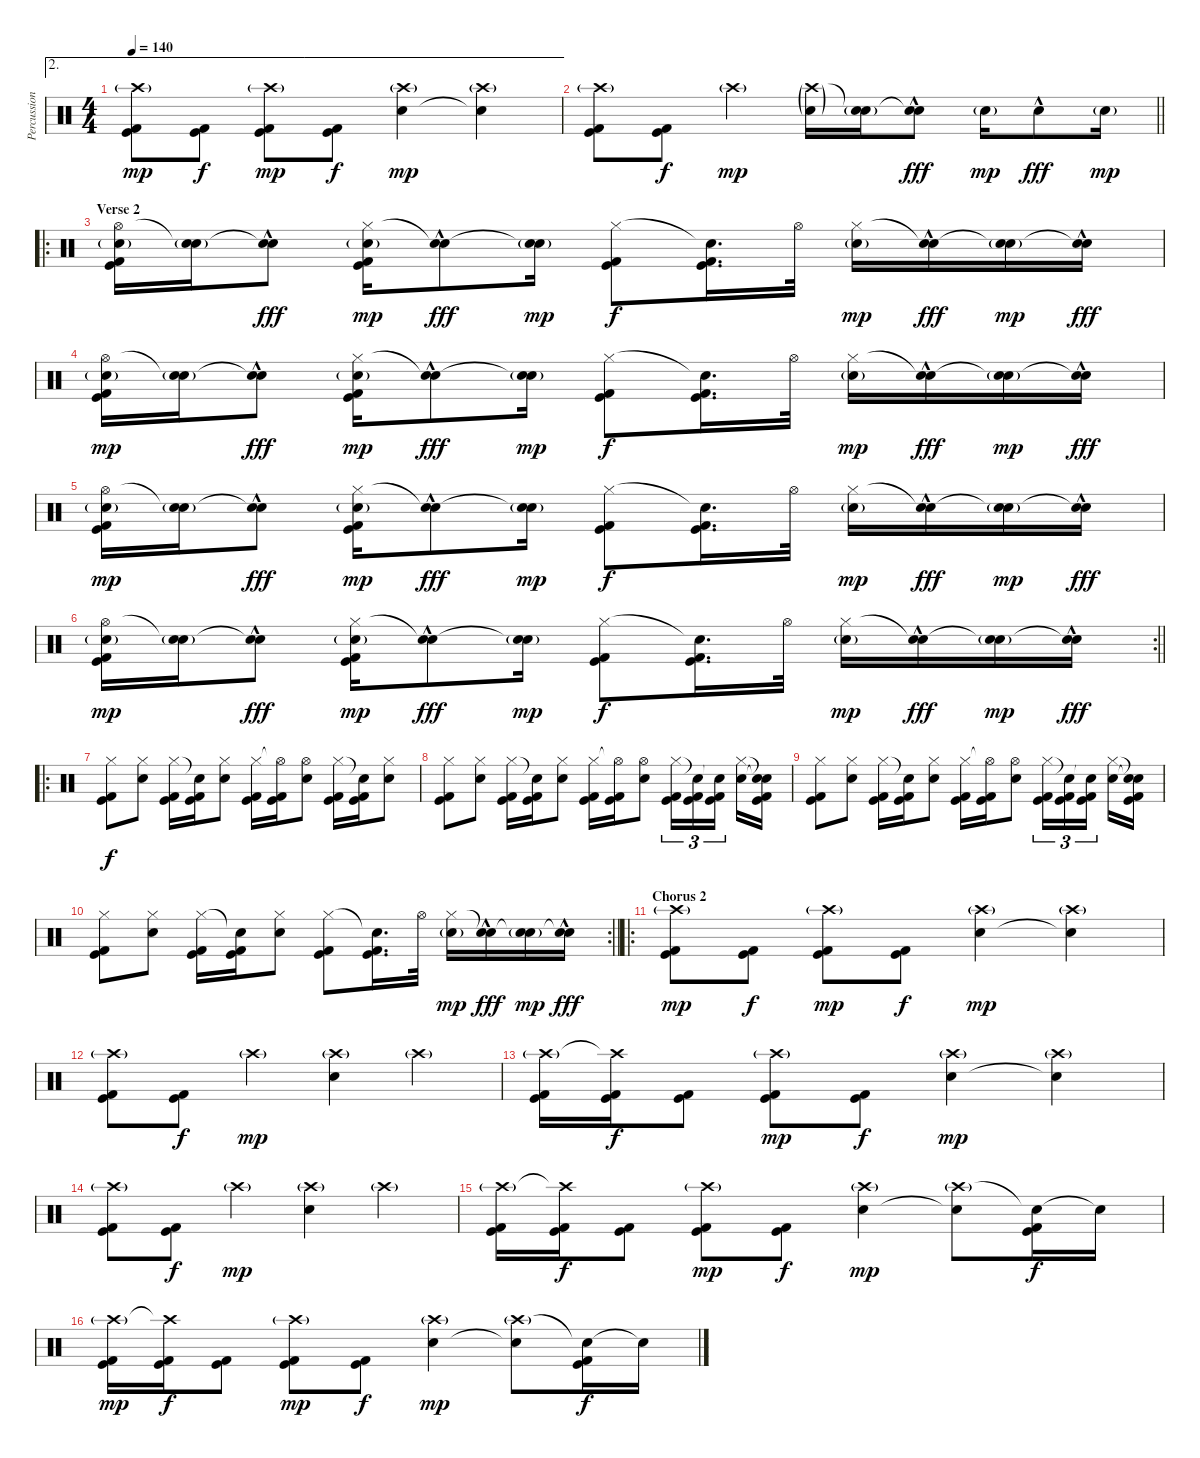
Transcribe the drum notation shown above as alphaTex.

\track ("Percussion" "Percussion") {instrument percussion}
\staff {score}
\articulation defaults
\ae 2
\ts (4 4)
\tempo 140
\clef neutral
\ks c
("Crash high (hit)"{g} "Kick (hit) 2" "Kick (hit)").8{dy mp} ("Kick (hit) 2" "Kick (hit)").8{dy f} ("Crash high (hit)"{g} "Kick (hit) 2" "Kick (hit)").8{dy mp} ("Kick (hit) 2" "Kick (hit)").8{dy f} ("Crash high (hit)"{g} "Electric Snare (hit)").4{dy mp} ("Crash high (hit)"{g} "Snare (hit)"{t}).4 |
\barLineRight lightlight
("Crash high (hit)"{g} "Kick (hit) 2" "Kick (hit)").8 ("Kick (hit) 2" "Kick (hit)").8{dy f} "Crash high (hit)"{g}.4{dy mp} ("Crash high (hit)"{g} "Electric Snare (hit)"{g}).16 ("Snare (hit)"{t} "Electric Snare (hit)"{g}).16 ("Snare (hit)"{t} "Electric Snare (hit)"{hac}).8{dy fff} "Electric Snare (hit)"{g}.16{dy mp} "Electric Snare (hit)"{hac}.8{dy fff} "Electric Snare (hit)"{g}.16{dy mp} |
\ro
\section ("" "Verse 2")
("Hi-Hat (open)" "Electric Snare (hit)"{g} "Kick (hit)" "Kick (hit) 2").16 ("Snare (hit)"{t} "Electric Snare (hit)"{g}).16 ("Snare (hit)"{t} "Electric Snare (hit)"{hac}).8{dy fff} ("Hi-Hat (closed)" "Electric Snare (hit)"{g} "Kick (hit)" "Kick (hit) 2").16{dy mp} ("Snare (hit)"{t} "Electric Snare (hit)"{hac}).8{dy fff} ("Snare (hit)"{t} "Electric Snare (hit)"{g}).16{dy mp} ("Hi-Hat (closed)" "Kick (hit)" "Kick (hit) 2").8{dy f} ("Snare (hit)"{t} "Kick (hit) 2" "Kick (hit)").16{d} "Hi-Hat (open)".32 ("Hi-Hat (closed)" "Electric Snare (hit)"{g}).16{dy mp} ("Snare (hit)"{t} "Electric Snare (hit)"{hac}).16{dy fff} ("Snare (hit)"{t} "Electric Snare (hit)"{g}).16{dy mp} ("Snare (hit)"{t} "Electric Snare (hit)"{hac}).16{dy fff} |
("Hi-Hat (open)" "Electric Snare (hit)"{g} "Kick (hit)" "Kick (hit) 2").16{dy mp} ("Snare (hit)"{t} "Electric Snare (hit)"{g}).16 ("Snare (hit)"{t} "Electric Snare (hit)"{hac}).8{dy fff} ("Hi-Hat (closed)" "Electric Snare (hit)"{g} "Kick (hit)" "Kick (hit) 2").16{dy mp} ("Snare (hit)"{t} "Electric Snare (hit)"{hac}).8{dy fff} ("Snare (hit)"{t} "Electric Snare (hit)"{g}).16{dy mp} ("Hi-Hat (closed)" "Kick (hit)" "Kick (hit) 2").8{dy f} ("Snare (hit)"{t} "Kick (hit) 2" "Kick (hit)").16{d} "Hi-Hat (open)".32 ("Hi-Hat (closed)" "Electric Snare (hit)"{g}).16{dy mp} ("Snare (hit)"{t} "Electric Snare (hit)"{hac}).16{dy fff} ("Snare (hit)"{t} "Electric Snare (hit)"{g}).16{dy mp} ("Snare (hit)"{t} "Electric Snare (hit)"{hac}).16{dy fff} |
("Hi-Hat (open)" "Electric Snare (hit)"{g} "Kick (hit)" "Kick (hit) 2").16{dy mp} ("Snare (hit)"{t} "Electric Snare (hit)"{g}).16 ("Snare (hit)"{t} "Electric Snare (hit)"{hac}).8{dy fff} ("Hi-Hat (closed)" "Electric Snare (hit)"{g} "Kick (hit)" "Kick (hit) 2").16{dy mp} ("Snare (hit)"{t} "Electric Snare (hit)"{hac}).8{dy fff} ("Snare (hit)"{t} "Electric Snare (hit)"{g}).16{dy mp} ("Hi-Hat (closed)" "Kick (hit)" "Kick (hit) 2").8{dy f} ("Snare (hit)"{t} "Kick (hit) 2" "Kick (hit)").16{d} "Hi-Hat (open)".32 ("Hi-Hat (closed)" "Electric Snare (hit)"{g}).16{dy mp} ("Snare (hit)"{t} "Electric Snare (hit)"{hac}).16{dy fff} ("Snare (hit)"{t} "Electric Snare (hit)"{g}).16{dy mp} ("Snare (hit)"{t} "Electric Snare (hit)"{hac}).16{dy fff} |
\rc 2
\barLineRight lightlight
("Hi-Hat (open)" "Electric Snare (hit)"{g} "Kick (hit)" "Kick (hit) 2").16{dy mp} ("Snare (hit)"{t} "Electric Snare (hit)"{g}).16 ("Snare (hit)"{t} "Electric Snare (hit)"{hac}).8{dy fff} ("Hi-Hat (closed)" "Electric Snare (hit)"{g} "Kick (hit)" "Kick (hit) 2").16{dy mp} ("Snare (hit)"{t} "Electric Snare (hit)"{hac}).8{dy fff} ("Snare (hit)"{t} "Electric Snare (hit)"{g}).16{dy mp} ("Hi-Hat (closed)" "Kick (hit)" "Kick (hit) 2").8{dy f} ("Snare (hit)"{t} "Kick (hit) 2" "Kick (hit)").16{d} "Hi-Hat (open)".32 ("Hi-Hat (closed)" "Electric Snare (hit)"{g}).16{dy mp} ("Snare (hit)"{t} "Electric Snare (hit)"{hac}).16{dy fff} ("Snare (hit)"{t} "Electric Snare (hit)"{g}).16{dy mp} ("Snare (hit)"{t} "Electric Snare (hit)"{hac}).16{dy fff} |
\ro
("Hi-Hat (closed)" "Kick (hit) 2" "Kick (hit)").8{dy f} ("Hi-Hat (closed)" "Electric Snare (hit)").8 ("Hi-Hat (closed)" "Kick (hit) 2" "Kick (hit)").16 ("Snare (hit)"{t} "Kick (hit) 2" "Kick (hit)").16 ("Hi-Hat (closed)" "Electric Snare (hit)").8 ("Hi-Hat (closed)" "Kick (hit) 2" "Kick (hit)").16 ("Hi-Hat (open)"{t} "Kick (hit) 2" "Kick (hit)").16 ("Hi-Hat (open)" "Electric Snare (hit)").8 ("Hi-Hat (closed)" "Kick (hit) 2" "Kick (hit)").16 ("Snare (hit)"{t} "Kick (hit) 2" "Kick (hit)").16 ("Hi-Hat (closed)" "Electric Snare (hit)").8 |
("Hi-Hat (closed)" "Kick (hit) 2" "Kick (hit)").8 ("Hi-Hat (closed)" "Electric Snare (hit)").8 ("Hi-Hat (closed)" "Kick (hit) 2" "Kick (hit)").16 ("Snare (hit)"{t} "Kick (hit) 2" "Kick (hit)").16 ("Hi-Hat (closed)" "Electric Snare (hit)").8 ("Hi-Hat (closed)" "Kick (hit) 2" "Kick (hit)").16 ("Hi-Hat (open)"{t} "Kick (hit) 2" "Kick (hit)").16 ("Hi-Hat (open)" "Electric Snare (hit)").8 ("Hi-Hat (closed)" "Kick (hit) 2" "Kick (hit)").16{tu (3 2)} ("Snare (hit)"{t} "Kick (hit) 2" "Kick (hit)").16{tu (3 2)} ("Snare (hit)"{t} "Kick (hit) 2" "Kick (hit)").16{tu (3 2) beam splitsecondary} ("Hi-Hat (closed)" "Electric Snare (hit)").16 ("Snare (hit)"{t} "Snare (hit)"{t} "Kick (hit) 2" "Kick (hit)").16 |
("Hi-Hat (closed)" "Kick (hit) 2" "Kick (hit)").8 ("Hi-Hat (closed)" "Electric Snare (hit)").8 ("Hi-Hat (closed)" "Kick (hit) 2" "Kick (hit)").16 ("Snare (hit)"{t} "Kick (hit) 2" "Kick (hit)").16 ("Hi-Hat (closed)" "Electric Snare (hit)").8 ("Hi-Hat (closed)" "Kick (hit) 2" "Kick (hit)").16 ("Hi-Hat (open)"{t} "Kick (hit) 2" "Kick (hit)").16 ("Hi-Hat (open)" "Electric Snare (hit)").8 ("Hi-Hat (closed)" "Kick (hit) 2" "Kick (hit)").16{tu (3 2)} ("Snare (hit)"{t} "Kick (hit) 2" "Kick (hit)").16{tu (3 2)} ("Snare (hit)"{t} "Kick (hit) 2" "Kick (hit)").16{tu (3 2) beam splitsecondary} ("Hi-Hat (closed)" "Electric Snare (hit)").16 ("Snare (hit)"{t} "Snare (hit)"{t} "Kick (hit) 2" "Kick (hit)").16 |
\rc 2
\barLineRight lightlight
("Hi-Hat (closed)" "Kick (hit) 2" "Kick (hit)").8 ("Hi-Hat (closed)" "Electric Snare (hit)").8 ("Hi-Hat (closed)" "Kick (hit) 2" "Kick (hit)").16 ("Snare (hit)"{t} "Kick (hit) 2" "Kick (hit)").16 ("Hi-Hat (closed)" "Electric Snare (hit)").8 ("Hi-Hat (closed)" "Kick (hit)" "Kick (hit) 2").8 ("Snare (hit)"{t} "Kick (hit) 2" "Kick (hit)").16{d} "Hi-Hat (open)".32 ("Hi-Hat (closed)" "Electric Snare (hit)"{g}).16{dy mp} ("Snare (hit)"{t} "Electric Snare (hit)"{hac}).16{dy fff} ("Snare (hit)"{t} "Electric Snare (hit)"{g}).16{dy mp} ("Snare (hit)"{t} "Electric Snare (hit)"{hac}).16{dy fff} |
\ro
\section ("" "Chorus 2")
("Crash high (hit)"{g} "Kick (hit) 2" "Kick (hit)").8{dy mp} ("Kick (hit) 2" "Kick (hit)").8{dy f} ("Crash high (hit)"{g} "Kick (hit) 2" "Kick (hit)").8{dy mp} ("Kick (hit) 2" "Kick (hit)").8{dy f} ("Crash high (hit)"{g} "Electric Snare (hit)").4{dy mp} ("Crash high (hit)"{g} "Snare (hit)"{t}).4 |
("Crash high (hit)"{g} "Kick (hit) 2" "Kick (hit)").8 ("Kick (hit) 2" "Kick (hit)").8{dy f} "Crash high (hit)"{g}.4{dy mp} ("Crash high (hit)"{g} "Electric Snare (hit)").4 "Crash high (hit)"{g}.4 |
("Crash high (hit)"{g} "Kick (hit) 2" "Kick (hit)").16 ("Crash high (hit)"{t} "Kick (hit) 2" "Kick (hit)").16{dy f} ("Kick (hit) 2" "Kick (hit)").8 ("Crash high (hit)"{g} "Kick (hit) 2" "Kick (hit)").8{dy mp} ("Kick (hit) 2" "Kick (hit)").8{dy f} ("Crash high (hit)"{g} "Electric Snare (hit)").4{dy mp} ("Crash high (hit)"{g} "Snare (hit)"{t}).4 |
("Crash high (hit)"{g} "Kick (hit) 2" "Kick (hit)").8 ("Kick (hit) 2" "Kick (hit)").8{dy f} "Crash high (hit)"{g}.4{dy mp} ("Crash high (hit)"{g} "Electric Snare (hit)").4 "Crash high (hit)"{g}.4 |
("Crash high (hit)"{g} "Kick (hit) 2" "Kick (hit)").16 ("Crash high (hit)"{t} "Kick (hit) 2" "Kick (hit)").16{dy f} ("Kick (hit) 2" "Kick (hit)").8 ("Crash high (hit)"{g} "Kick (hit) 2" "Kick (hit)").8{dy mp} ("Kick (hit) 2" "Kick (hit)").8{dy f} ("Crash high (hit)"{g} "Electric Snare (hit)").4{dy mp} ("Crash high (hit)"{g} "Snare (hit)"{t}).8 ("Snare (hit)"{t} "Kick (hit) 2" "Kick (hit)").16{dy f} "Snare (hit)"{t}.16 |
("Crash high (hit)"{g} "Kick (hit) 2" "Kick (hit)").16{dy mp} ("Crash high (hit)"{t} "Kick (hit) 2" "Kick (hit)").16{dy f} ("Kick (hit) 2" "Kick (hit)").8 ("Crash high (hit)"{g} "Kick (hit) 2" "Kick (hit)").8{dy mp} ("Kick (hit) 2" "Kick (hit)").8{dy f} ("Crash high (hit)"{g} "Electric Snare (hit)").4{dy mp} ("Crash high (hit)"{g} "Snare (hit)"{t}).8 ("Snare (hit)"{t} "Kick (hit) 2" "Kick (hit)").16{dy f} "Snare (hit)"{t}.16
